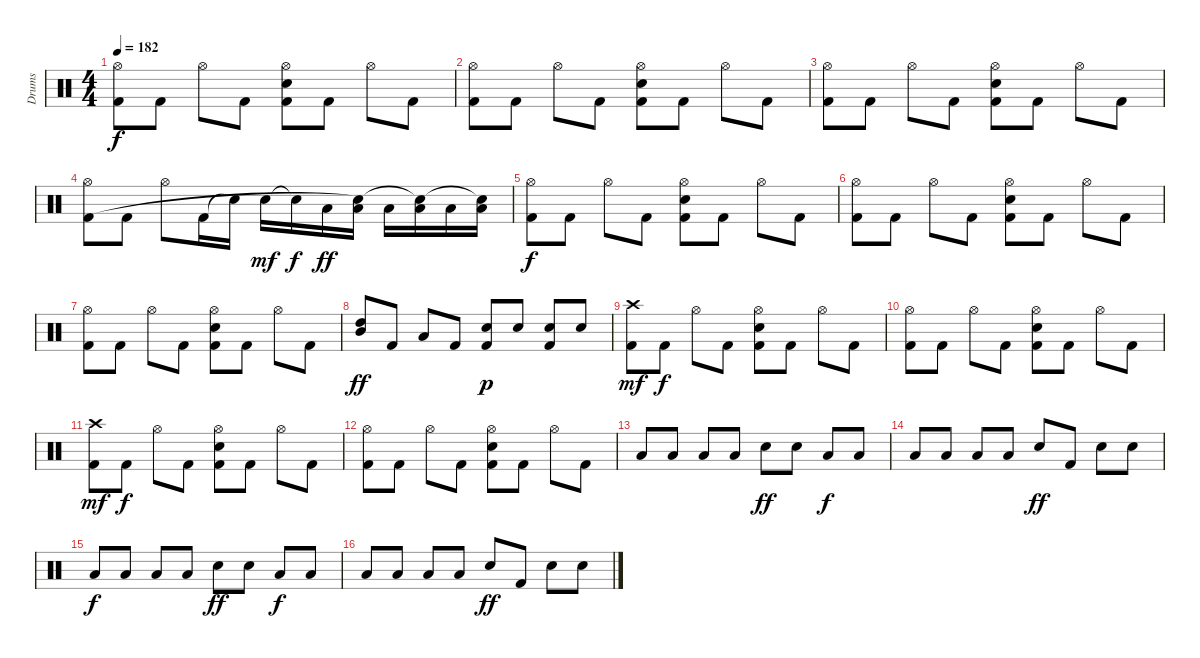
\track ("Drums" "Drums") {instrument percussion}
\staff {score}
\articulation defaults
\ts (4 4)
\tempo 182
\clef neutral
\ks c
("Hi-Hat (open)" "Kick (hit) 2").8{dy f} "Kick (hit) 2".8 "Hi-Hat (open)".8 "Kick (hit) 2".8 ("Hi-Hat (open)" "Snare (hit) 2" "Kick (hit) 2").8 "Kick (hit) 2".8 "Hi-Hat (open)".8 "Kick (hit) 2".8 |
("Hi-Hat (open)" "Kick (hit) 2").8 "Kick (hit) 2".8 "Hi-Hat (open)".8 "Kick (hit) 2".8 ("Hi-Hat (open)" "Snare (hit) 2" "Kick (hit) 2").8 "Kick (hit) 2".8 "Hi-Hat (open)".8 "Kick (hit) 2".8 |
("Hi-Hat (open)" "Kick (hit) 2").8 "Kick (hit) 2".8 "Hi-Hat (open)".8 "Kick (hit) 2".8 ("Hi-Hat (open)" "Snare (hit) 2" "Kick (hit) 2").8 "Kick (hit) 2".8 "Hi-Hat (open)".8 "Kick (hit) 2".8 |
("Hi-Hat (open)" "Kick (hit) 2").8 "Kick (hit) 2".8 "Hi-Hat (open)".8 "Kick (hit) 2".16 "Snare (hit)"{t}.16 "Snare (hit) 2".16{dy mf} "Snare (hit)"{t}.16{dy f} "Low Floor Tom (hit)".16{dy ff} ("Low Floor Tom (hit)" "Snare (hit)"{t}).16 "Low Floor Tom (hit)".16 ("Low Floor Tom (hit)" "Snare (hit)"{t}).16 "Low Floor Tom (hit)".16 ("Low Floor Tom (hit)" "Snare (hit)"{t}).16 |
("Hi-Hat (open)" "Kick (hit) 2").8{dy f} "Kick (hit) 2".8 "Hi-Hat (open)".8 "Kick (hit) 2".8 ("Hi-Hat (open)" "Snare (hit) 2" "Kick (hit) 2").8 "Kick (hit) 2".8 "Hi-Hat (open)".8 "Kick (hit) 2".8 |
("Hi-Hat (open)" "Kick (hit) 2").8 "Kick (hit) 2".8 "Hi-Hat (open)".8 "Kick (hit) 2".8 ("Hi-Hat (open)" "Snare (hit) 2" "Kick (hit) 2").8 "Kick (hit) 2".8 "Hi-Hat (open)".8 "Kick (hit) 2".8 |
("Hi-Hat (open)" "Kick (hit) 2").8 "Kick (hit) 2".8 "Hi-Hat (open)".8 "Kick (hit) 2".8 ("Hi-Hat (open)" "Snare (hit) 2" "Kick (hit) 2").8 "Kick (hit) 2".8 "Hi-Hat (open)".8 "Kick (hit) 2".8 |
("Mid Tom (hit)" "High Tom (hit)").8{dy ff} "Kick (hit) 2".8 "Low Floor Tom (hit)".8 "Kick (hit) 2".8 ("Snare (hit) 2" "Kick (hit) 2").8{dy p} "Snare (hit) 2".8 ("Snare (hit) 2" "Kick (hit) 2").8 "Snare (hit) 2".8 |
("Crash high (hit)" "Kick (hit) 2").8{dy mf} "Kick (hit) 2".8{dy f} "Hi-Hat (open)".8 "Kick (hit) 2".8 ("Hi-Hat (open)" "Snare (hit) 2" "Kick (hit) 2").8 "Kick (hit) 2".8 "Hi-Hat (open)".8 "Kick (hit) 2".8 |
("Hi-Hat (open)" "Kick (hit) 2").8 "Kick (hit) 2".8 "Hi-Hat (open)".8 "Kick (hit) 2".8 ("Hi-Hat (open)" "Snare (hit) 2" "Kick (hit) 2").8 "Kick (hit) 2".8 "Hi-Hat (open)".8 "Kick (hit) 2".8 |
("Crash high (hit)" "Kick (hit) 2").8{dy mf} "Kick (hit) 2".8{dy f} "Hi-Hat (open)".8 "Kick (hit) 2".8 ("Hi-Hat (open)" "Snare (hit) 2" "Kick (hit) 2").8 "Kick (hit) 2".8 "Hi-Hat (open)".8 "Kick (hit) 2".8 |
("Hi-Hat (open)" "Kick (hit) 2").8 "Kick (hit) 2".8 "Hi-Hat (open)".8 "Kick (hit) 2".8 ("Hi-Hat (open)" "Snare (hit) 2" "Kick (hit) 2").8 "Kick (hit) 2".8 "Hi-Hat (open)".8 "Kick (hit) 2".8 |
"Low Floor Tom (hit)".8 "Low Floor Tom (hit)".8 "Low Floor Tom (hit)".8 "Low Floor Tom (hit)".8 "Snare (hit) 2".8{dy ff} "Snare (hit) 2".8 "Low Floor Tom (hit)".8{dy f} "Low Floor Tom (hit)".8 |
"Low Floor Tom (hit)".8 "Low Floor Tom (hit)".8 "Low Floor Tom (hit)".8 "Low Floor Tom (hit)".8 "Snare (hit) 2".8{dy ff} "Kick (hit) 2".8 "Snare (hit) 2".8 "Snare (hit) 2".8 |
"Low Floor Tom (hit)".8{dy f} "Low Floor Tom (hit)".8 "Low Floor Tom (hit)".8 "Low Floor Tom (hit)".8 "Snare (hit) 2".8{dy ff} "Snare (hit) 2".8 "Low Floor Tom (hit)".8{dy f} "Low Floor Tom (hit)".8 |
"Low Floor Tom (hit)".8 "Low Floor Tom (hit)".8 "Low Floor Tom (hit)".8 "Low Floor Tom (hit)".8 "Snare (hit) 2".8{dy ff} "Kick (hit) 2".8 "Snare (hit) 2".8 "Snare (hit) 2".8
